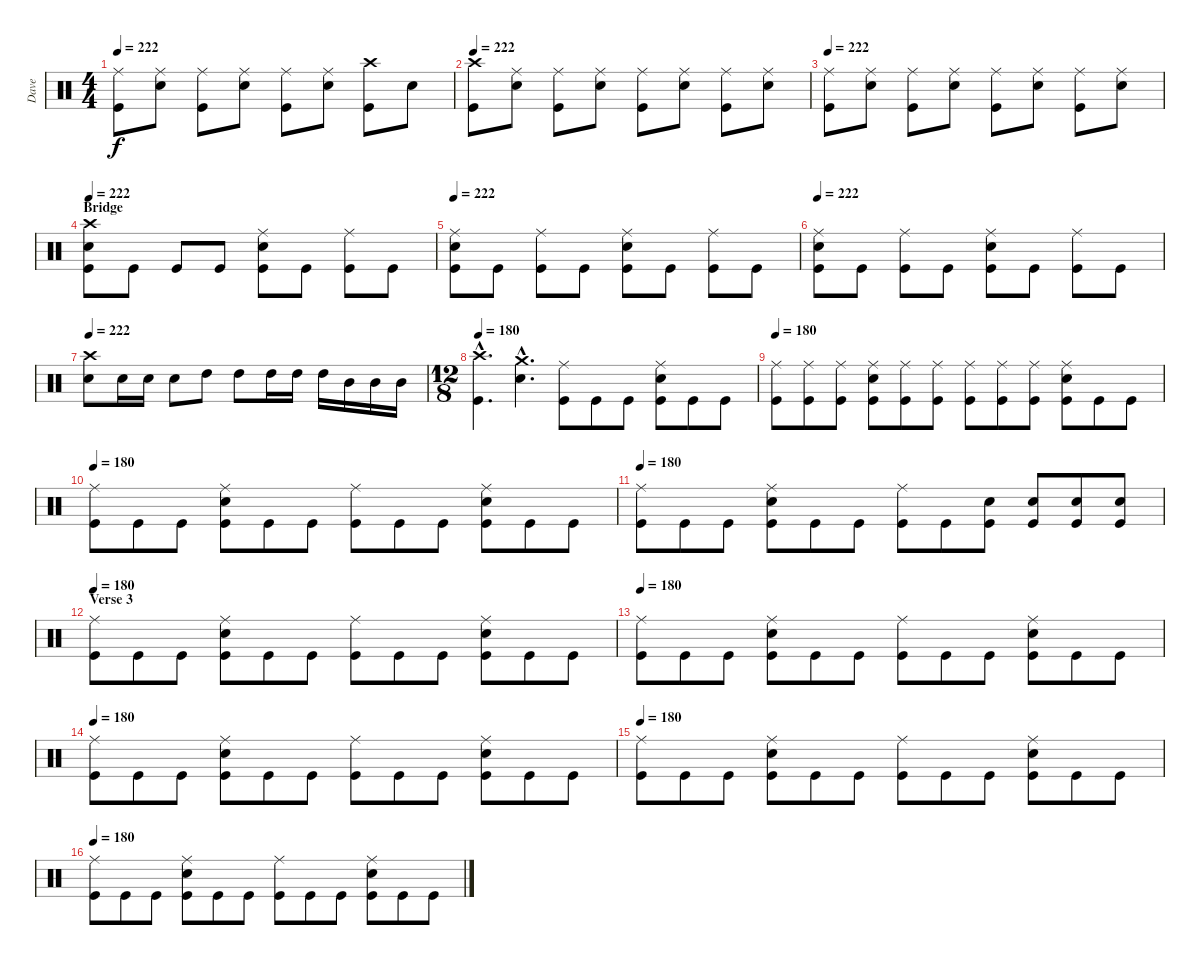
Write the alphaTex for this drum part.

\track ("Dave" "Dave") {instrument percussion}
\staff {score}
\articulation defaults
\ts (4 4)
\tempo 222
\clef neutral
\ks c
("Ride (middle)" "Kick (hit)").8{dy f} ("Ride (middle)" "Snare (hit) 2").8 ("Ride (middle)" "Kick (hit)").8 ("Ride (middle)" "Snare (hit) 2").8 ("Ride (middle)" "Kick (hit)").8 ("Ride (middle)" "Snare (hit) 2").8 ("Crash high (hit)" "Kick (hit)").8 "Snare (hit) 2".8 |
\tempo 222
("Crash high (hit)" "Kick (hit)").8 ("Ride (middle)" "Snare (hit) 2").8 ("Ride (middle)" "Kick (hit)").8 ("Ride (middle)" "Snare (hit) 2").8 ("Ride (middle)" "Kick (hit)").8 ("Ride (middle)" "Snare (hit) 2").8 ("Ride (middle)" "Kick (hit)").8 ("Ride (middle)" "Snare (hit) 2").8 |
\tempo 222
("Ride (middle)" "Kick (hit)").8 ("Ride (middle)" "Snare (hit) 2").8 ("Ride (middle)" "Kick (hit)").8 ("Ride (middle)" "Snare (hit) 2").8 ("Ride (middle)" "Kick (hit)").8 ("Ride (middle)" "Snare (hit) 2").8 ("Ride (middle)" "Kick (hit)").8 ("Ride (middle)" "Snare (hit) 2").8 |
\section ("" "Bridge")
\tempo 222
("Crash high (hit)" "Snare (hit) 2" "Kick (hit)").8 "Kick (hit)".8 "Kick (hit)".8 "Kick (hit)".8 ("Ride (middle)" "Snare (hit) 2" "Kick (hit)").8 "Kick (hit)".8 ("Ride (middle)" "Kick (hit)").8 "Kick (hit)".8 |
\tempo 222
("Ride (middle)" "Snare (hit) 2" "Kick (hit)").8 "Kick (hit)".8 ("Ride (middle)" "Kick (hit)").8 "Kick (hit)".8 ("Ride (middle)" "Snare (hit) 2" "Kick (hit)").8 "Kick (hit)".8 ("Ride (middle)" "Kick (hit)").8 "Kick (hit)".8 |
\tempo 222
("Ride (middle)" "Snare (hit) 2" "Kick (hit)").8 "Kick (hit)".8 ("Ride (middle)" "Kick (hit)").8 "Kick (hit)".8 ("Ride (middle)" "Snare (hit) 2" "Kick (hit)").8 "Kick (hit)".8 ("Ride (middle)" "Kick (hit)").8 "Kick (hit)".8 |
\tempo 222
("Crash high (hit)" "Snare (hit) 2").8 "Snare (hit) 2".16 "Snare (hit) 2".16 "Snare (hit) 2".8 "High Tom (hit)".8 "High Tom (hit)".8 "High Tom (hit)".16 "High Tom (hit)".16 "High Tom (hit)".16 "Mid Tom (hit)".16 "Mid Tom (hit)".16 "Mid Tom (hit)".16 |
\ts (12 8)
\tempo 180
("Crash high (hit)"{hac} "Kick (hit)"{hac}).4{d} ("Crash medium (hit)"{hac} "Snare (hit) 2"{hac}).4{d} ("Ride (middle)" "Kick (hit)").8 "Kick (hit)".8 "Kick (hit)".8 ("Ride (middle)" "Snare (hit) 2" "Kick (hit)").8 "Kick (hit)".8 "Kick (hit)".8 |
\tempo 180
("Ride (middle)" "Kick (hit)").8 ("Ride (middle)" "Kick (hit)").8 ("Ride (middle)" "Kick (hit)").8 ("Ride (middle)" "Snare (hit) 2" "Kick (hit)").8 ("Ride (middle)" "Kick (hit)").8 ("Ride (middle)" "Kick (hit)").8 ("Ride (middle)" "Kick (hit)").8 ("Ride (middle)" "Kick (hit)").8 ("Ride (middle)" "Kick (hit)").8 ("Ride (middle)" "Snare (hit) 2" "Kick (hit)").8 "Kick (hit)".8 "Kick (hit)".8 |
\tempo 180
("Ride (middle)" "Kick (hit)").8 "Kick (hit)".8 "Kick (hit)".8 ("Ride (middle)" "Snare (hit) 2" "Kick (hit)").8 "Kick (hit)".8 "Kick (hit)".8 ("Ride (middle)" "Kick (hit)").8 "Kick (hit)".8 "Kick (hit)".8 ("Ride (middle)" "Snare (hit) 2" "Kick (hit)").8 "Kick (hit)".8 "Kick (hit)".8 |
\tempo 180
("Ride (middle)" "Kick (hit)").8 "Kick (hit)".8 "Kick (hit)".8 ("Ride (middle)" "Snare (hit) 2" "Kick (hit)").8 "Kick (hit)".8 "Kick (hit)".8 ("Ride (middle)" "Kick (hit)").8 "Kick (hit)".8 ("Snare (hit) 2" "Kick (hit)").8 ("Snare (hit) 2" "Kick (hit)").8 ("Snare (hit) 2" "Kick (hit)").8 ("Snare (hit) 2" "Kick (hit)").8 |
\section ("" "Verse 3")
\tempo 180
("Ride (middle)" "Kick (hit)").8 "Kick (hit)".8 "Kick (hit)".8 ("Ride (middle)" "Snare (hit) 2" "Kick (hit)").8 "Kick (hit)".8 "Kick (hit)".8 ("Ride (middle)" "Kick (hit)").8 "Kick (hit)".8 "Kick (hit)".8 ("Ride (middle)" "Snare (hit) 2" "Kick (hit)").8 "Kick (hit)".8 "Kick (hit)".8 |
\tempo 180
("Ride (middle)" "Kick (hit)").8 "Kick (hit)".8 "Kick (hit)".8 ("Ride (middle)" "Snare (hit) 2" "Kick (hit)").8 "Kick (hit)".8 "Kick (hit)".8 ("Ride (middle)" "Kick (hit)").8 "Kick (hit)".8 "Kick (hit)".8 ("Ride (middle)" "Snare (hit) 2" "Kick (hit)").8 "Kick (hit)".8 "Kick (hit)".8 |
\tempo 180
("Ride (middle)" "Kick (hit)").8 "Kick (hit)".8 "Kick (hit)".8 ("Ride (middle)" "Snare (hit) 2" "Kick (hit)").8 "Kick (hit)".8 "Kick (hit)".8 ("Ride (middle)" "Kick (hit)").8 "Kick (hit)".8 "Kick (hit)".8 ("Ride (middle)" "Snare (hit) 2" "Kick (hit)").8 "Kick (hit)".8 "Kick (hit)".8 |
\tempo 180
("Ride (middle)" "Kick (hit)").8 "Kick (hit)".8 "Kick (hit)".8 ("Ride (middle)" "Snare (hit) 2" "Kick (hit)").8 "Kick (hit)".8 "Kick (hit)".8 ("Ride (middle)" "Kick (hit)").8 "Kick (hit)".8 "Kick (hit)".8 ("Ride (middle)" "Snare (hit) 2" "Kick (hit)").8 "Kick (hit)".8 "Kick (hit)".8 |
\tempo 180
("Ride (middle)" "Kick (hit)").8 "Kick (hit)".8 "Kick (hit)".8 ("Ride (middle)" "Snare (hit) 2" "Kick (hit)").8 "Kick (hit)".8 "Kick (hit)".8 ("Ride (middle)" "Kick (hit)").8 "Kick (hit)".8 "Kick (hit)".8 ("Ride (middle)" "Snare (hit) 2" "Kick (hit)").8 "Kick (hit)".8 "Kick (hit)".8
